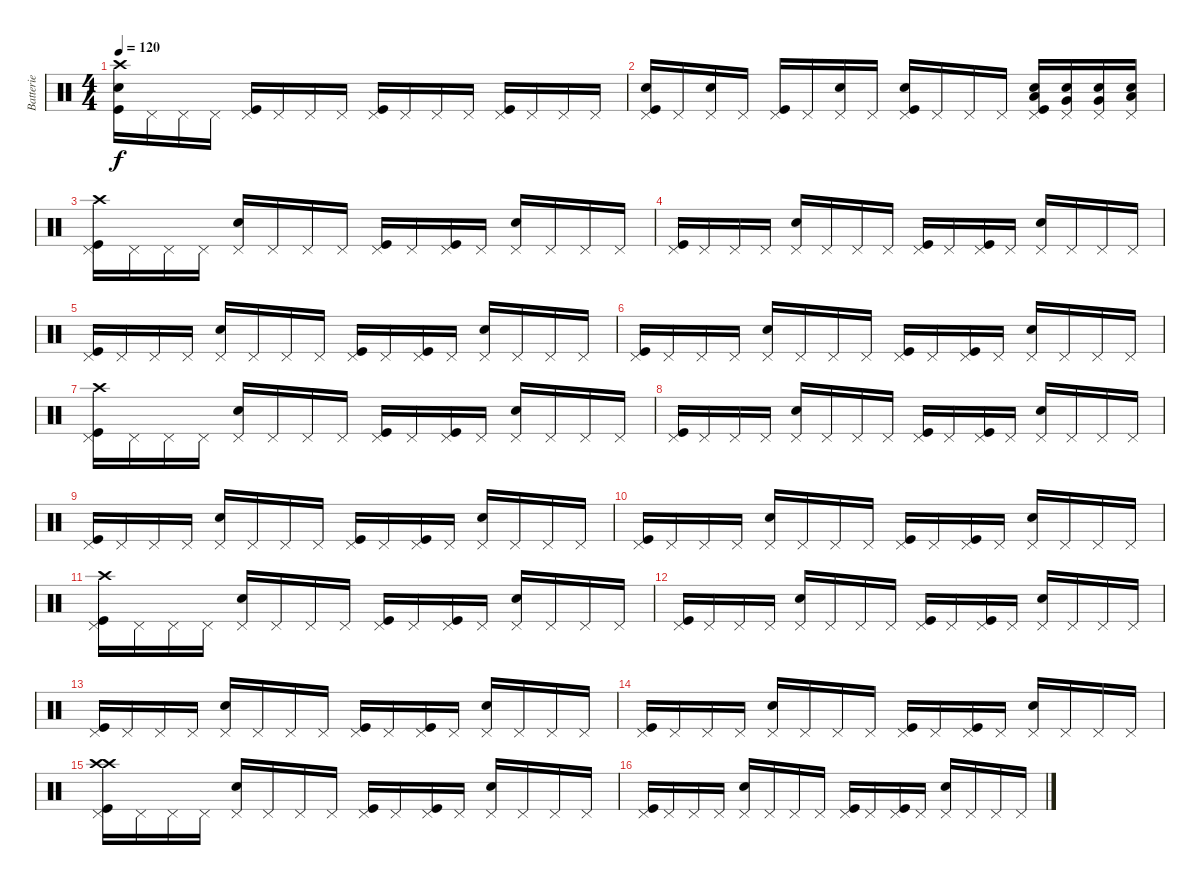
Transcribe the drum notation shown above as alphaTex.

\track ("Batterie" "Batterie") {instrument percussion}
\staff {score}
\articulation defaults
\ts (4 4)
\tempo 120
\clef neutral
\ks c
("Crash high (hit)" "Electric Snare (hit)" "Kick (hit)").16{dy f} "Pedal Hi-Hat (hit)".16 "Pedal Hi-Hat (hit)".16 "Pedal Hi-Hat (hit)".16 ("Pedal Hi-Hat (hit)" "Kick (hit)").16 "Pedal Hi-Hat (hit)".16 "Pedal Hi-Hat (hit)".16 "Pedal Hi-Hat (hit)".16 ("Pedal Hi-Hat (hit)" "Kick (hit)").16 "Pedal Hi-Hat (hit)".16 "Pedal Hi-Hat (hit)".16 "Pedal Hi-Hat (hit)".16 ("Pedal Hi-Hat (hit)" "Kick (hit)").16 "Pedal Hi-Hat (hit)".16 "Pedal Hi-Hat (hit)".16 "Pedal Hi-Hat (hit)".16 |
("Electric Snare (hit)" "Pedal Hi-Hat (hit)" "Kick (hit)").16 "Pedal Hi-Hat (hit)".16 ("Electric Snare (hit)" "Pedal Hi-Hat (hit)").16 "Pedal Hi-Hat (hit)".16 ("Pedal Hi-Hat (hit)" "Kick (hit)").16 "Pedal Hi-Hat (hit)".16 ("Electric Snare (hit)" "Pedal Hi-Hat (hit)").16 "Pedal Hi-Hat (hit)".16 ("Electric Snare (hit)" "Pedal Hi-Hat (hit)" "Kick (hit)").16 "Pedal Hi-Hat (hit)".16 "Pedal Hi-Hat (hit)".16 "Pedal Hi-Hat (hit)".16 ("Electric Snare (hit)" "Low Tom (hit)" "Pedal Hi-Hat (hit)" "Kick (hit)").16 ("Electric Snare (hit)" "Very Low Tom (hit)" "Pedal Hi-Hat (hit)").16 ("Electric Snare (hit)" "Very Low Tom (hit)" "Pedal Hi-Hat (hit)").16 ("Electric Snare (hit)" "Low Floor Tom (hit)" "Pedal Hi-Hat (hit)").16 |
("Crash high (hit)" "Pedal Hi-Hat (hit)" "Kick (hit)").16 "Pedal Hi-Hat (hit)".16 "Pedal Hi-Hat (hit)".16 "Pedal Hi-Hat (hit)".16 ("Electric Snare (hit)" "Pedal Hi-Hat (hit)").16 "Pedal Hi-Hat (hit)".16 "Pedal Hi-Hat (hit)".16 "Pedal Hi-Hat (hit)".16 ("Pedal Hi-Hat (hit)" "Kick (hit)").16 "Pedal Hi-Hat (hit)".16 ("Pedal Hi-Hat (hit)" "Kick (hit)").16 "Pedal Hi-Hat (hit)".16 ("Electric Snare (hit)" "Pedal Hi-Hat (hit)").16 "Pedal Hi-Hat (hit)".16 "Pedal Hi-Hat (hit)".16 "Pedal Hi-Hat (hit)".16 |
("Pedal Hi-Hat (hit)" "Kick (hit)").16 "Pedal Hi-Hat (hit)".16 "Pedal Hi-Hat (hit)".16 "Pedal Hi-Hat (hit)".16 ("Electric Snare (hit)" "Pedal Hi-Hat (hit)").16 "Pedal Hi-Hat (hit)".16 "Pedal Hi-Hat (hit)".16 "Pedal Hi-Hat (hit)".16 ("Pedal Hi-Hat (hit)" "Kick (hit)").16 "Pedal Hi-Hat (hit)".16 ("Pedal Hi-Hat (hit)" "Kick (hit)").16 "Pedal Hi-Hat (hit)".16 ("Electric Snare (hit)" "Pedal Hi-Hat (hit)").16 "Pedal Hi-Hat (hit)".16 "Pedal Hi-Hat (hit)".16 "Pedal Hi-Hat (hit)".16 |
("Pedal Hi-Hat (hit)" "Kick (hit)").16 "Pedal Hi-Hat (hit)".16 "Pedal Hi-Hat (hit)".16 "Pedal Hi-Hat (hit)".16 ("Electric Snare (hit)" "Pedal Hi-Hat (hit)").16 "Pedal Hi-Hat (hit)".16 "Pedal Hi-Hat (hit)".16 "Pedal Hi-Hat (hit)".16 ("Pedal Hi-Hat (hit)" "Kick (hit)").16 "Pedal Hi-Hat (hit)".16 ("Pedal Hi-Hat (hit)" "Kick (hit)").16 "Pedal Hi-Hat (hit)".16 ("Electric Snare (hit)" "Pedal Hi-Hat (hit)").16 "Pedal Hi-Hat (hit)".16 "Pedal Hi-Hat (hit)".16 "Pedal Hi-Hat (hit)".16 |
("Pedal Hi-Hat (hit)" "Kick (hit)").16 "Pedal Hi-Hat (hit)".16 "Pedal Hi-Hat (hit)".16 "Pedal Hi-Hat (hit)".16 ("Electric Snare (hit)" "Pedal Hi-Hat (hit)").16 "Pedal Hi-Hat (hit)".16 "Pedal Hi-Hat (hit)".16 "Pedal Hi-Hat (hit)".16 ("Pedal Hi-Hat (hit)" "Kick (hit)").16 "Pedal Hi-Hat (hit)".16 ("Pedal Hi-Hat (hit)" "Kick (hit)").16 "Pedal Hi-Hat (hit)".16 ("Electric Snare (hit)" "Pedal Hi-Hat (hit)").16 "Pedal Hi-Hat (hit)".16 "Pedal Hi-Hat (hit)".16 "Pedal Hi-Hat (hit)".16 |
("Crash high (hit)" "Pedal Hi-Hat (hit)" "Kick (hit)").16 "Pedal Hi-Hat (hit)".16 "Pedal Hi-Hat (hit)".16 "Pedal Hi-Hat (hit)".16 ("Electric Snare (hit)" "Pedal Hi-Hat (hit)").16 "Pedal Hi-Hat (hit)".16 "Pedal Hi-Hat (hit)".16 "Pedal Hi-Hat (hit)".16 ("Pedal Hi-Hat (hit)" "Kick (hit)").16 "Pedal Hi-Hat (hit)".16 ("Pedal Hi-Hat (hit)" "Kick (hit)").16 "Pedal Hi-Hat (hit)".16 ("Electric Snare (hit)" "Pedal Hi-Hat (hit)").16 "Pedal Hi-Hat (hit)".16 "Pedal Hi-Hat (hit)".16 "Pedal Hi-Hat (hit)".16 |
("Pedal Hi-Hat (hit)" "Kick (hit)").16 "Pedal Hi-Hat (hit)".16 "Pedal Hi-Hat (hit)".16 "Pedal Hi-Hat (hit)".16 ("Electric Snare (hit)" "Pedal Hi-Hat (hit)").16 "Pedal Hi-Hat (hit)".16 "Pedal Hi-Hat (hit)".16 "Pedal Hi-Hat (hit)".16 ("Pedal Hi-Hat (hit)" "Kick (hit)").16 "Pedal Hi-Hat (hit)".16 ("Pedal Hi-Hat (hit)" "Kick (hit)").16 "Pedal Hi-Hat (hit)".16 ("Electric Snare (hit)" "Pedal Hi-Hat (hit)").16 "Pedal Hi-Hat (hit)".16 "Pedal Hi-Hat (hit)".16 "Pedal Hi-Hat (hit)".16 |
("Pedal Hi-Hat (hit)" "Kick (hit)").16 "Pedal Hi-Hat (hit)".16 "Pedal Hi-Hat (hit)".16 "Pedal Hi-Hat (hit)".16 ("Electric Snare (hit)" "Pedal Hi-Hat (hit)").16 "Pedal Hi-Hat (hit)".16 "Pedal Hi-Hat (hit)".16 "Pedal Hi-Hat (hit)".16 ("Pedal Hi-Hat (hit)" "Kick (hit)").16 "Pedal Hi-Hat (hit)".16 ("Pedal Hi-Hat (hit)" "Kick (hit)").16 "Pedal Hi-Hat (hit)".16 ("Electric Snare (hit)" "Pedal Hi-Hat (hit)").16 "Pedal Hi-Hat (hit)".16 "Pedal Hi-Hat (hit)".16 "Pedal Hi-Hat (hit)".16 |
("Pedal Hi-Hat (hit)" "Kick (hit)").16 "Pedal Hi-Hat (hit)".16 "Pedal Hi-Hat (hit)".16 "Pedal Hi-Hat (hit)".16 ("Electric Snare (hit)" "Pedal Hi-Hat (hit)").16 "Pedal Hi-Hat (hit)".16 "Pedal Hi-Hat (hit)".16 "Pedal Hi-Hat (hit)".16 ("Pedal Hi-Hat (hit)" "Kick (hit)").16 "Pedal Hi-Hat (hit)".16 ("Pedal Hi-Hat (hit)" "Kick (hit)").16 "Pedal Hi-Hat (hit)".16 ("Electric Snare (hit)" "Pedal Hi-Hat (hit)").16 "Pedal Hi-Hat (hit)".16 "Pedal Hi-Hat (hit)".16 "Pedal Hi-Hat (hit)".16 |
("Crash high (hit)" "Pedal Hi-Hat (hit)" "Kick (hit)").16 "Pedal Hi-Hat (hit)".16 "Pedal Hi-Hat (hit)".16 "Pedal Hi-Hat (hit)".16 ("Electric Snare (hit)" "Pedal Hi-Hat (hit)").16 "Pedal Hi-Hat (hit)".16 "Pedal Hi-Hat (hit)".16 "Pedal Hi-Hat (hit)".16 ("Pedal Hi-Hat (hit)" "Kick (hit)").16 "Pedal Hi-Hat (hit)".16 ("Pedal Hi-Hat (hit)" "Kick (hit)").16 "Pedal Hi-Hat (hit)".16 ("Electric Snare (hit)" "Pedal Hi-Hat (hit)").16 "Pedal Hi-Hat (hit)".16 "Pedal Hi-Hat (hit)".16 "Pedal Hi-Hat (hit)".16 |
("Pedal Hi-Hat (hit)" "Kick (hit)").16 "Pedal Hi-Hat (hit)".16 "Pedal Hi-Hat (hit)".16 "Pedal Hi-Hat (hit)".16 ("Electric Snare (hit)" "Pedal Hi-Hat (hit)").16 "Pedal Hi-Hat (hit)".16 "Pedal Hi-Hat (hit)".16 "Pedal Hi-Hat (hit)".16 ("Pedal Hi-Hat (hit)" "Kick (hit)").16 "Pedal Hi-Hat (hit)".16 ("Pedal Hi-Hat (hit)" "Kick (hit)").16 "Pedal Hi-Hat (hit)".16 ("Electric Snare (hit)" "Pedal Hi-Hat (hit)").16 "Pedal Hi-Hat (hit)".16 "Pedal Hi-Hat (hit)".16 "Pedal Hi-Hat (hit)".16 |
("Pedal Hi-Hat (hit)" "Kick (hit)").16 "Pedal Hi-Hat (hit)".16 "Pedal Hi-Hat (hit)".16 "Pedal Hi-Hat (hit)".16 ("Electric Snare (hit)" "Pedal Hi-Hat (hit)").16 "Pedal Hi-Hat (hit)".16 "Pedal Hi-Hat (hit)".16 "Pedal Hi-Hat (hit)".16 ("Pedal Hi-Hat (hit)" "Kick (hit)").16 "Pedal Hi-Hat (hit)".16 ("Pedal Hi-Hat (hit)" "Kick (hit)").16 "Pedal Hi-Hat (hit)".16 ("Electric Snare (hit)" "Pedal Hi-Hat (hit)").16 "Pedal Hi-Hat (hit)".16 "Pedal Hi-Hat (hit)".16 "Pedal Hi-Hat (hit)".16 |
("Pedal Hi-Hat (hit)" "Kick (hit)").16 "Pedal Hi-Hat (hit)".16 "Pedal Hi-Hat (hit)".16 "Pedal Hi-Hat (hit)".16 ("Electric Snare (hit)" "Pedal Hi-Hat (hit)").16 "Pedal Hi-Hat (hit)".16 "Pedal Hi-Hat (hit)".16 "Pedal Hi-Hat (hit)".16 ("Pedal Hi-Hat (hit)" "Kick (hit)").16 "Pedal Hi-Hat (hit)".16 ("Pedal Hi-Hat (hit)" "Kick (hit)").16 "Pedal Hi-Hat (hit)".16 ("Electric Snare (hit)" "Pedal Hi-Hat (hit)").16 "Pedal Hi-Hat (hit)".16 "Pedal Hi-Hat (hit)".16 "Pedal Hi-Hat (hit)".16 |
("Crash high (hit)" "Crash high (hit)" "Pedal Hi-Hat (hit)" "Kick (hit)").16 "Pedal Hi-Hat (hit)".16 "Pedal Hi-Hat (hit)".16 "Pedal Hi-Hat (hit)".16 ("Electric Snare (hit)" "Pedal Hi-Hat (hit)").16 "Pedal Hi-Hat (hit)".16 "Pedal Hi-Hat (hit)".16 "Pedal Hi-Hat (hit)".16 ("Pedal Hi-Hat (hit)" "Kick (hit)").16 "Pedal Hi-Hat (hit)".16 ("Pedal Hi-Hat (hit)" "Kick (hit)").16 "Pedal Hi-Hat (hit)".16 ("Electric Snare (hit)" "Pedal Hi-Hat (hit)").16 "Pedal Hi-Hat (hit)".16 "Pedal Hi-Hat (hit)".16 "Pedal Hi-Hat (hit)".16 |
("Pedal Hi-Hat (hit)" "Kick (hit)").16 "Pedal Hi-Hat (hit)".16 "Pedal Hi-Hat (hit)".16 "Pedal Hi-Hat (hit)".16 ("Electric Snare (hit)" "Pedal Hi-Hat (hit)").16 "Pedal Hi-Hat (hit)".16 "Pedal Hi-Hat (hit)".16 "Pedal Hi-Hat (hit)".16 ("Pedal Hi-Hat (hit)" "Kick (hit)").16 "Pedal Hi-Hat (hit)".16 ("Pedal Hi-Hat (hit)" "Kick (hit)").16 "Pedal Hi-Hat (hit)".16 ("Electric Snare (hit)" "Pedal Hi-Hat (hit)").16 "Pedal Hi-Hat (hit)".16 "Pedal Hi-Hat (hit)".16 "Pedal Hi-Hat (hit)".16
